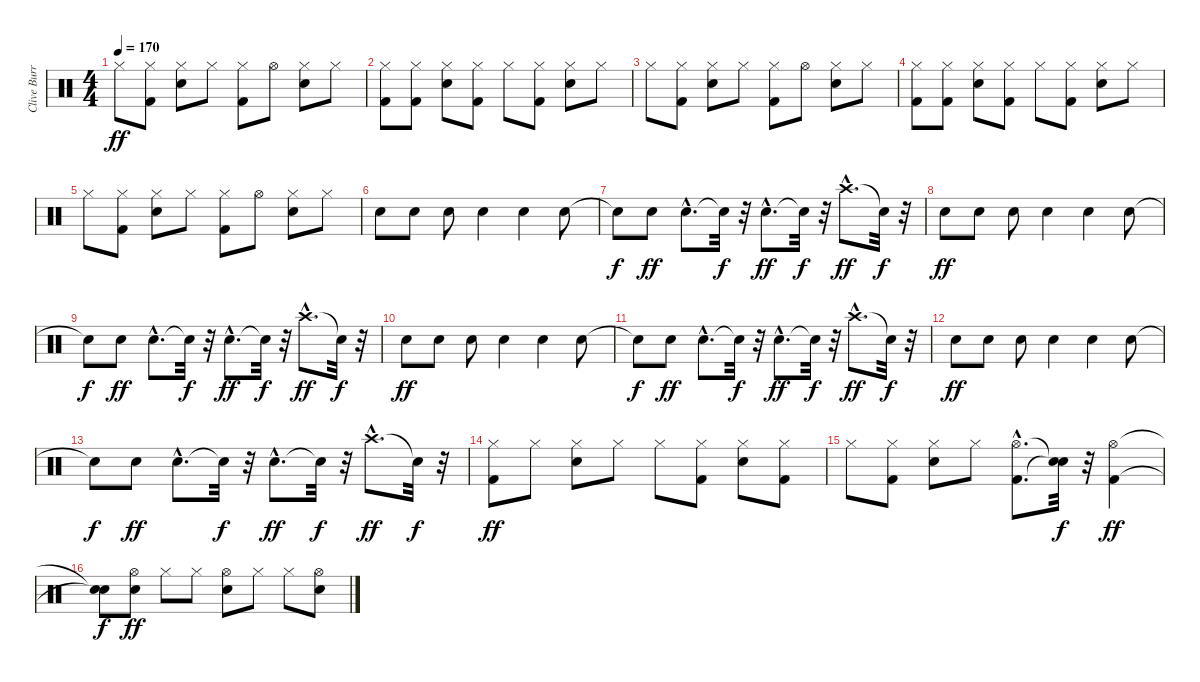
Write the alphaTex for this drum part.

\track ("Clive Burr" "Clive Burr") {instrument percussion}
\staff {score}
\articulation defaults
\ts (4 4)
\tempo 170
\clef neutral
\ks c "Hi-Hat (closed)".8{dy ff}
("Kick (hit) 2" "Hi-Hat (closed)").8 ("Snare (hit) 2" "Hi-Hat (closed)").8 "Hi-Hat (closed)".8 ("Kick (hit) 2" "Hi-Hat (closed)").8 "Hi-Hat (open)".8 ("Snare (hit) 2" "Hi-Hat (closed)").8 "Hi-Hat (closed)".8 |
("Kick (hit) 2" "Hi-Hat (closed)").8 ("Kick (hit) 2" "Hi-Hat (closed)").8 ("Snare (hit) 2" "Hi-Hat (closed)").8 ("Kick (hit) 2" "Hi-Hat (closed)").8 "Hi-Hat (closed)".8 ("Kick (hit) 2" "Hi-Hat (closed)").8 ("Snare (hit) 2" "Hi-Hat (closed)").8 "Hi-Hat (closed)".8 |
"Hi-Hat (closed)".8 ("Kick (hit) 2" "Hi-Hat (closed)").8 ("Snare (hit) 2" "Hi-Hat (closed)").8 "Hi-Hat (closed)".8 ("Kick (hit) 2" "Hi-Hat (closed)").8 "Hi-Hat (open)".8 ("Snare (hit) 2" "Hi-Hat (closed)").8 "Hi-Hat (closed)".8 |
("Kick (hit) 2" "Hi-Hat (closed)").8 ("Kick (hit) 2" "Hi-Hat (closed)").8 ("Snare (hit) 2" "Hi-Hat (closed)").8 ("Kick (hit) 2" "Hi-Hat (closed)").8 "Hi-Hat (closed)".8 ("Kick (hit) 2" "Hi-Hat (closed)").8 ("Snare (hit) 2" "Hi-Hat (closed)").8 "Hi-Hat (closed)".8 |
"Hi-Hat (closed)".8 ("Kick (hit) 2" "Hi-Hat (closed)").8 ("Snare (hit) 2" "Hi-Hat (closed)").8 "Hi-Hat (closed)".8 ("Kick (hit) 2" "Hi-Hat (closed)").8 "Hi-Hat (open)".8 ("Snare (hit) 2" "Hi-Hat (closed)").8 "Hi-Hat (closed)".8 |
"Snare (hit) 2".8 "Snare (hit) 2".8 "Snare (hit) 2".8 "Snare (hit) 2".4 "Snare (hit) 2".4 "Snare (hit) 2".8 |
"Snare (hit)"{t}.8{dy f} "Snare (hit) 2".8{dy ff} "Snare (hit) 2"{hac}.8{d} "Snare (hit)"{t}.32{dy f} r.32 "Snare (hit) 2"{hac}.8{d dy ff} "Snare (hit)"{t}.32{dy f} r.32 "Crash high (hit)"{hac}.8{d dy ff} "Snare (hit)"{t}.32{dy f} r.32 |
"Snare (hit) 2".8{dy ff} "Snare (hit) 2".8 "Snare (hit) 2".8 "Snare (hit) 2".4 "Snare (hit) 2".4 "Snare (hit) 2".8 |
"Snare (hit)"{t}.8{dy f} "Snare (hit) 2".8{dy ff} "Snare (hit) 2"{hac}.8{d} "Snare (hit)"{t}.32{dy f} r.32 "Snare (hit) 2"{hac}.8{d dy ff} "Snare (hit)"{t}.32{dy f} r.32 "Crash high (hit)"{hac}.8{d dy ff} "Snare (hit)"{t}.32{dy f} r.32 |
"Snare (hit) 2".8{dy ff} "Snare (hit) 2".8 "Snare (hit) 2".8 "Snare (hit) 2".4 "Snare (hit) 2".4 "Snare (hit) 2".8 |
"Snare (hit)"{t}.8{dy f} "Snare (hit) 2".8{dy ff} "Snare (hit) 2"{hac}.8{d} "Snare (hit)"{t}.32{dy f} r.32 "Snare (hit) 2"{hac}.8{d dy ff} "Snare (hit)"{t}.32{dy f} r.32 "Crash high (hit)"{hac}.8{d dy ff} "Snare (hit)"{t}.32{dy f} r.32 |
"Snare (hit) 2".8{dy ff} "Snare (hit) 2".8 "Snare (hit) 2".8 "Snare (hit) 2".4 "Snare (hit) 2".4 "Snare (hit) 2".8 |
"Snare (hit)"{t}.8{dy f} "Snare (hit) 2".8{dy ff} "Snare (hit) 2"{hac}.8{d} "Snare (hit)"{t}.32{dy f} r.32 "Snare (hit) 2"{hac}.8{d dy ff} "Snare (hit)"{t}.32{dy f} r.32 "Crash high (hit)"{hac}.8{d dy ff} "Snare (hit)"{t}.32{dy f} r.32 |
("Kick (hit) 2" "Hi-Hat (closed)").8{dy ff} "Hi-Hat (closed)".8 ("Snare (hit) 2" "Hi-Hat (closed)").8 "Hi-Hat (closed)".8 "Hi-Hat (closed)".8 ("Kick (hit) 2" "Hi-Hat (closed)").8 ("Snare (hit) 2" "Hi-Hat (closed)").8 ("Kick (hit) 2" "Hi-Hat (closed)").8 |
"Hi-Hat (closed)".8 ("Kick (hit) 2" "Hi-Hat (closed)").8 ("Snare (hit) 2" "Hi-Hat (closed)").8 "Hi-Hat (closed)".8 ("Kick (hit) 2"{hac} "Hi-Hat (open)"{hac}).8{d} ("Snare (hit)"{t} "Snare (hit)"{t}).32{dy f} r.32 ("Kick (hit) 2" "Hi-Hat (open)").4{dy ff} |
("Snare (hit)"{t} "Snare (hit)"{t}).8{dy f} ("Snare (hit) 2" "Hi-Hat (open)").8{dy ff} "Hi-Hat (closed)".8 "Hi-Hat (closed)".8 ("Snare (hit) 2" "Hi-Hat (open)").8 "Hi-Hat (closed)".8 "Hi-Hat (closed)".8 ("Snare (hit) 2" "Hi-Hat (open)").8
